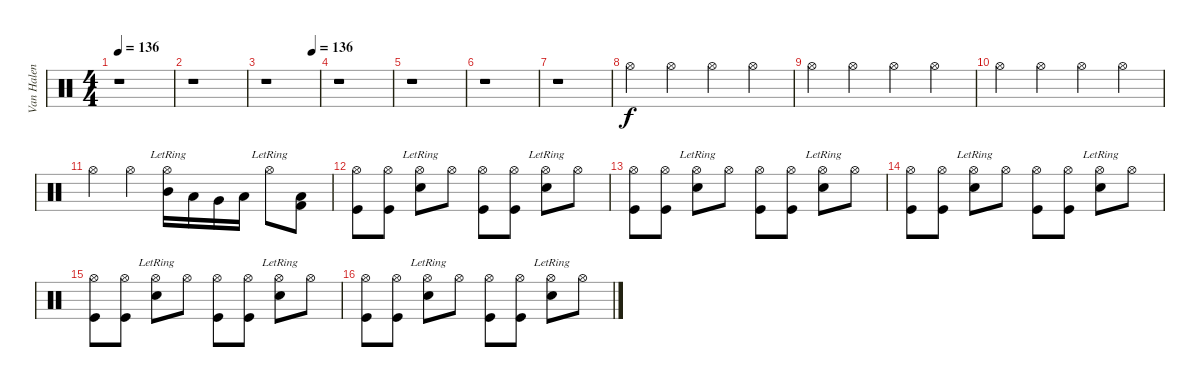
\track ("Van Halen" "Van Halen") {instrument percussion}
\staff {score}
\articulation defaults
\ts (4 4)
\tempo 136
\clef neutral
\ks c
r.1{dy f} |
r.1 |
\tempo (136 0.875)
r.1 |
r.1 |
r.1 |
r.1 |
r.1 |
"Hi-Hat (open)".4 "Hi-Hat (open)".4 "Hi-Hat (open)".4 "Hi-Hat (open)".4 |
"Hi-Hat (open)".4 "Hi-Hat (open)".4 "Hi-Hat (open)".4 "Hi-Hat (open)".4 |
"Hi-Hat (open)".4 "Hi-Hat (open)".4 "Hi-Hat (open)".4 "Hi-Hat (open)".4 |
"Hi-Hat (open)".4 "Hi-Hat (open)".4 ("Mid Tom (hit)" "Hi-Hat (open)"{lr}).16 "Low Tom (hit)".16 "Very Low Tom (hit)".16 "Low Floor Tom (hit)".16 "Hi-Hat (open)"{lr}.8 ("Kick (hit) 2" "Low Floor Tom (hit)").8 |
("Kick (hit)" "Hi-Hat (open)").8 ("Kick (hit)" "Hi-Hat (open)").8 ("Snare (hit) 2"{lr} "Hi-Hat (open)").8 "Hi-Hat (open)".8 ("Kick (hit)" "Hi-Hat (open)").8 ("Kick (hit)" "Hi-Hat (open)").8 ("Snare (hit) 2"{lr} "Hi-Hat (open)").8 "Hi-Hat (open)".8 |
("Kick (hit)" "Hi-Hat (open)").8 ("Kick (hit)" "Hi-Hat (open)").8 ("Snare (hit) 2"{lr} "Hi-Hat (open)").8 "Hi-Hat (open)".8 ("Kick (hit)" "Hi-Hat (open)").8 ("Kick (hit)" "Hi-Hat (open)").8 ("Snare (hit) 2"{lr} "Hi-Hat (open)").8 "Hi-Hat (open)".8 |
("Kick (hit)" "Hi-Hat (open)").8 ("Kick (hit)" "Hi-Hat (open)").8 ("Snare (hit) 2"{lr} "Hi-Hat (open)").8 "Hi-Hat (open)".8 ("Kick (hit)" "Hi-Hat (open)").8 ("Kick (hit)" "Hi-Hat (open)").8 ("Snare (hit) 2"{lr} "Hi-Hat (open)").8 "Hi-Hat (open)".8 |
("Kick (hit)" "Hi-Hat (open)").8 ("Kick (hit)" "Hi-Hat (open)").8 ("Snare (hit) 2"{lr} "Hi-Hat (open)").8 "Hi-Hat (open)".8 ("Kick (hit)" "Hi-Hat (open)").8 ("Kick (hit)" "Hi-Hat (open)").8 ("Snare (hit) 2"{lr} "Hi-Hat (open)").8 "Hi-Hat (open)".8 |
("Kick (hit)" "Hi-Hat (open)").8 ("Kick (hit)" "Hi-Hat (open)").8 ("Snare (hit) 2"{lr} "Hi-Hat (open)").8 "Hi-Hat (open)".8 ("Kick (hit)" "Hi-Hat (open)").8 ("Kick (hit)" "Hi-Hat (open)").8 ("Snare (hit) 2"{lr} "Hi-Hat (open)").8 "Hi-Hat (open)".8
